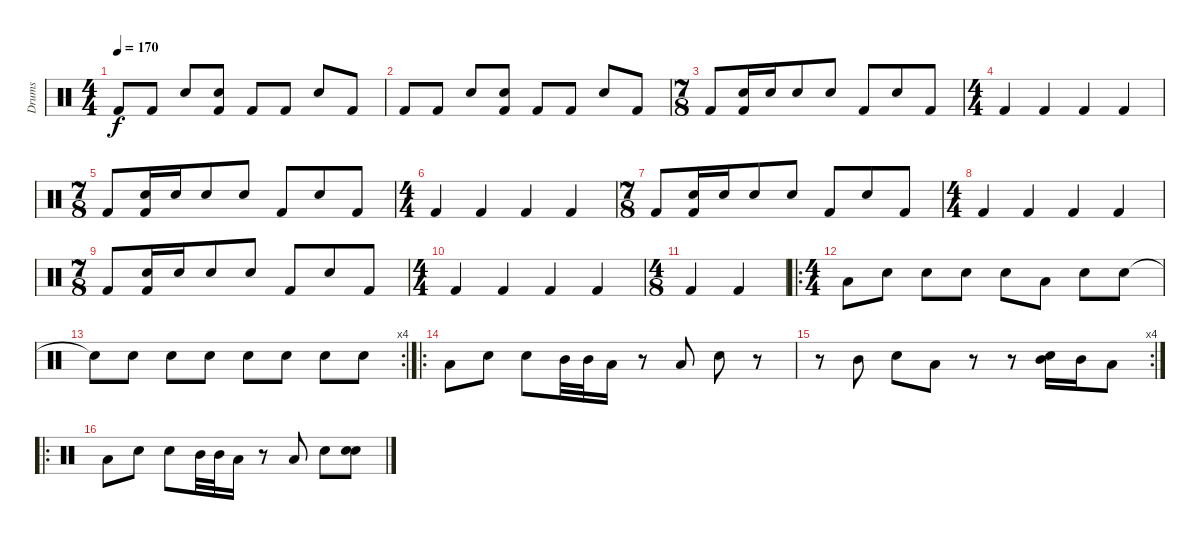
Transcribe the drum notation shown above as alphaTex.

\track ("Drums" "Drums") {instrument percussion}
\staff {score}
\articulation defaults
\ts (4 4)
\tempo 170
\clef neutral
\ks c "Kick (hit) 2".8{dy f} "Kick (hit) 2".8 "Snare (hit) 2".8
("Electric Snare (hit)" "Kick (hit) 2").8 "Kick (hit) 2".8 "Kick (hit) 2".8 "Snare (hit) 2".8 "Kick (hit) 2".8 |
"Kick (hit) 2".8 "Kick (hit) 2".8 "Snare (hit) 2".8 ("Electric Snare (hit)" "Kick (hit) 2").8 "Kick (hit) 2".8 "Kick (hit) 2".8 "Snare (hit) 2".8 "Kick (hit) 2".8 |
\ts (7 8)
"Kick (hit) 2".8 ("Electric Snare (hit)" "Kick (hit) 2").16 "Electric Snare (hit)".16 "Electric Snare (hit)".8 "Electric Snare (hit)".8 "Kick (hit) 2".8 "Electric Snare (hit)".8 "Kick (hit) 2".8 |
\ts (4 4)
"Kick (hit) 2".4 "Kick (hit) 2".4 "Kick (hit) 2".4 "Kick (hit) 2".4 |
\ts (7 8)
"Kick (hit) 2".8 ("Electric Snare (hit)" "Kick (hit) 2").16 "Electric Snare (hit)".16 "Electric Snare (hit)".8 "Electric Snare (hit)".8 "Kick (hit) 2".8 "Electric Snare (hit)".8 "Kick (hit) 2".8 |
\ts (4 4)
"Kick (hit) 2".4 "Kick (hit) 2".4 "Kick (hit) 2".4 "Kick (hit) 2".4 |
\ts (7 8)
"Kick (hit) 2".8 ("Electric Snare (hit)" "Kick (hit) 2").16 "Electric Snare (hit)".16 "Electric Snare (hit)".8 "Electric Snare (hit)".8 "Kick (hit) 2".8 "Electric Snare (hit)".8 "Kick (hit) 2".8 |
\ts (4 4)
"Kick (hit) 2".4 "Kick (hit) 2".4 "Kick (hit) 2".4 "Kick (hit) 2".4 |
\ts (7 8)
"Kick (hit) 2".8 ("Electric Snare (hit)" "Kick (hit) 2").16 "Electric Snare (hit)".16 "Electric Snare (hit)".8 "Electric Snare (hit)".8 "Kick (hit) 2".8 "Electric Snare (hit)".8 "Kick (hit) 2".8 |
\ts (4 4)
"Kick (hit) 2".4 "Kick (hit) 2".4 "Kick (hit) 2".4 "Kick (hit) 2".4 |
\ts (4 8)
"Kick (hit) 2".4 "Kick (hit) 2".4 |
\ro
\ts (4 4)
"Low Tom (hit)".8 "Snare (hit)".8 "Electric Snare (hit)".8 "Snare (hit)".8 "Snare (hit)".8 "Low Tom (hit)".8 "Snare (hit)".8 "Electric Snare (hit)".8 |
\rc 4 "Electric Snare (hit)"{t}.8 "Snare (hit)".8 "Electric Snare (hit)".8 "Snare (hit)".8 "Electric Snare (hit)".8 "Snare (hit)".8 "Electric Snare (hit)".8 "Snare (hit)".8
|
\ro "Low Tom (hit)".8 "Snare (hit)".8 "Electric Snare (hit)".8 "Mid Tom (hit)".32 "Mid Tom (hit)".32 "Low Tom (hit)".16
r.8 "Low Tom (hit)".8 "Electric Snare (hit)".8 r.8 |
\rc 4
r.8 "Mid Tom (hit)".8 "Electric Snare (hit)".8 "Low Tom (hit)".8 r.8 r.8 ("Mid Tom (hit)" "Electric Snare (hit)").16 "Mid Tom (hit)".16 "Low Tom (hit)".8 |
\ro "Low Tom (hit)".8 "Snare (hit)".8 "Electric Snare (hit)".8 "Mid Tom (hit)".32 "Mid Tom (hit)".32 "Low Tom (hit)".16
r.8 "Low Tom (hit)".8 "Snare (hit)".8 ("Electric Snare (hit)" "Snare (hit)").8
